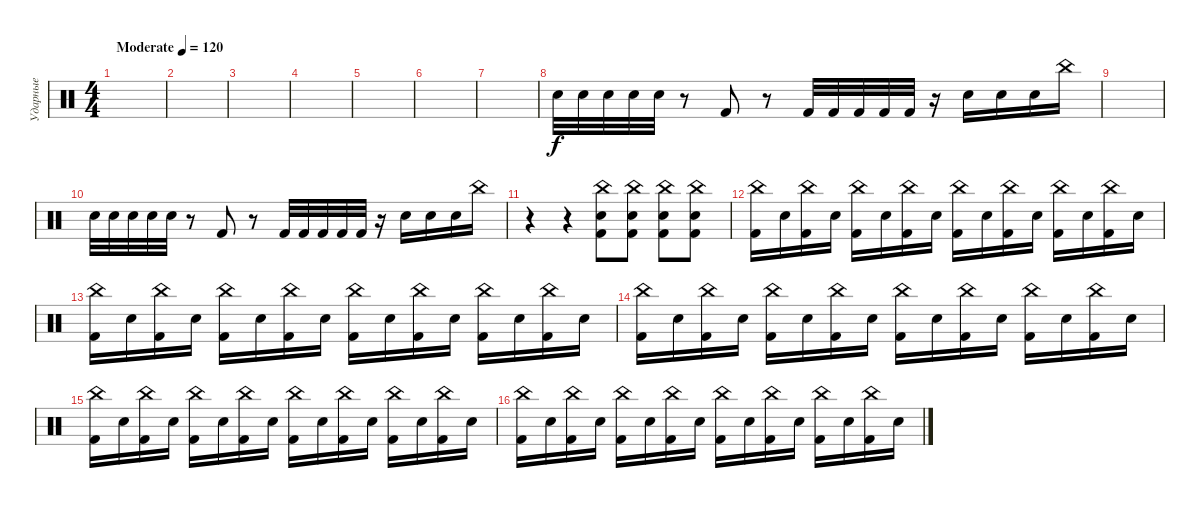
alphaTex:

\track ("Ударные" "Ударные") {instrument percussion}
\staff {score}
\articulation defaults
\ts (4 4)
\tempo (120 "Moderate")
\clef neutral
\ks c
|
|
|
|
|
|
|
"Snare (hit) 2".32 "Snare (hit) 2".32 "Snare (hit) 2".32 "Snare (hit) 2".32 "Snare (hit) 2".32 r.8 "Kick (hit) 2".8 r.8 "Kick (hit) 2".32 "Kick (hit) 2".32 "Kick (hit) 2".32 "Kick (hit) 2".32 "Kick (hit) 2".32 r.16 "Snare (hit) 2".16 "Snare (hit) 2".16 "Snare (hit) 2".16 "China (hit)".16 |
|
"Snare (hit) 2".32 "Snare (hit) 2".32 "Snare (hit) 2".32 "Snare (hit) 2".32 "Snare (hit) 2".32 r.8 "Kick (hit) 2".8 r.8 "Kick (hit) 2".32 "Kick (hit) 2".32 "Kick (hit) 2".32 "Kick (hit) 2".32 "Kick (hit) 2".32 r.16 "Snare (hit) 2".16 "Snare (hit) 2".16 "Snare (hit) 2".16 "China (hit)".16 |
r.4 r.4 ("China (hit)" "Snare (hit) 2" "Kick (hit) 2").8 ("China (hit)" "Snare (hit) 2" "Kick (hit) 2").8 ("China (hit)" "Snare (hit) 2" "Kick (hit) 2").8 ("China (hit)" "Snare (hit) 2" "Kick (hit) 2").8 |
("China (hit)" "Kick (hit) 2").16 "Snare (hit) 2".16 ("China (hit)" "Kick (hit) 2").16 "Snare (hit) 2".16 ("China (hit)" "Kick (hit) 2").16 "Snare (hit) 2".16 ("China (hit)" "Kick (hit) 2").16 "Snare (hit) 2".16 ("China (hit)" "Kick (hit) 2").16 "Snare (hit) 2".16 ("China (hit)" "Kick (hit) 2").16 "Snare (hit) 2".16 ("China (hit)" "Kick (hit) 2").16 "Snare (hit) 2".16 ("China (hit)" "Kick (hit) 2").16 "Snare (hit) 2".16 |
("China (hit)" "Kick (hit) 2").16 "Snare (hit) 2".16 ("China (hit)" "Kick (hit) 2").16 "Snare (hit) 2".16 ("China (hit)" "Kick (hit) 2").16 "Snare (hit) 2".16 ("China (hit)" "Kick (hit) 2").16 "Snare (hit) 2".16 ("China (hit)" "Kick (hit) 2").16 "Snare (hit) 2".16 ("China (hit)" "Kick (hit) 2").16 "Snare (hit) 2".16 ("China (hit)" "Kick (hit) 2").16 "Snare (hit) 2".16 ("China (hit)" "Kick (hit) 2").16 "Snare (hit) 2".16 |
("China (hit)" "Kick (hit) 2").16 "Snare (hit) 2".16 ("China (hit)" "Kick (hit) 2").16 "Snare (hit) 2".16 ("China (hit)" "Kick (hit) 2").16 "Snare (hit) 2".16 ("China (hit)" "Kick (hit) 2").16 "Snare (hit) 2".16 ("China (hit)" "Kick (hit) 2").16 "Snare (hit) 2".16 ("China (hit)" "Kick (hit) 2").16 "Snare (hit) 2".16 ("China (hit)" "Kick (hit) 2").16 "Snare (hit) 2".16 ("China (hit)" "Kick (hit) 2").16 "Snare (hit) 2".16 |
("China (hit)" "Kick (hit) 2").16 "Snare (hit) 2".16 ("China (hit)" "Kick (hit) 2").16 "Snare (hit) 2".16 ("China (hit)" "Kick (hit) 2").16 "Snare (hit) 2".16 ("China (hit)" "Kick (hit) 2").16 "Snare (hit) 2".16 ("China (hit)" "Kick (hit) 2").16 "Snare (hit) 2".16 ("China (hit)" "Kick (hit) 2").16 "Snare (hit) 2".16 ("China (hit)" "Kick (hit) 2").16 "Snare (hit) 2".16 ("China (hit)" "Kick (hit) 2").16 "Snare (hit) 2".16 |
("China (hit)" "Kick (hit) 2").16 "Snare (hit) 2".16 ("China (hit)" "Kick (hit) 2").16 "Snare (hit) 2".16 ("China (hit)" "Kick (hit) 2").16 "Snare (hit) 2".16 ("China (hit)" "Kick (hit) 2").16 "Snare (hit) 2".16 ("China (hit)" "Kick (hit) 2").16 "Snare (hit) 2".16 ("China (hit)" "Kick (hit) 2").16 "Snare (hit) 2".16 ("China (hit)" "Kick (hit) 2").16 "Snare (hit) 2".16 ("China (hit)" "Kick (hit) 2").16 "Snare (hit) 2".16
